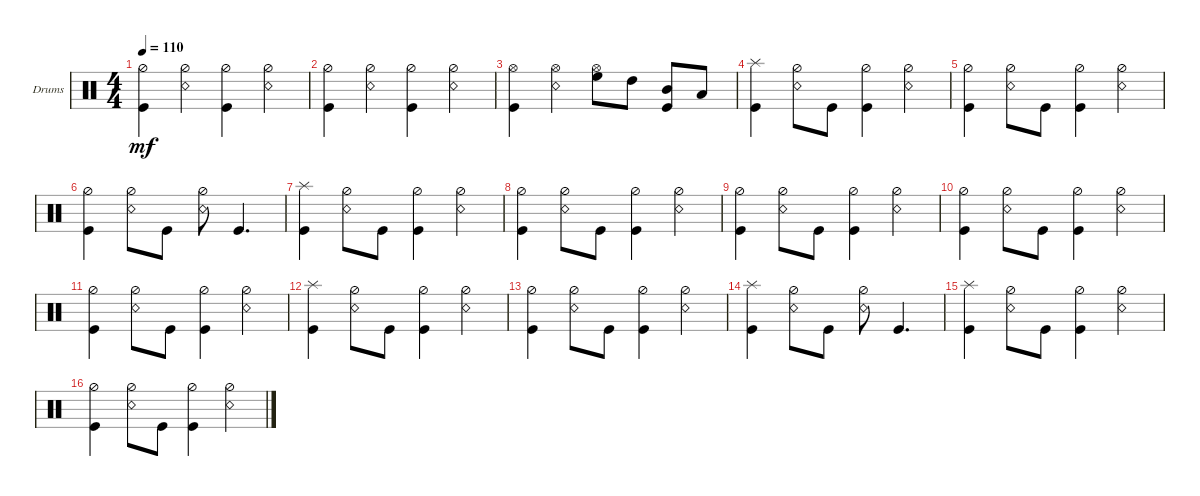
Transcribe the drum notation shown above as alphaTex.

\bracketExtendMode groupsimilarinstruments
\firstSystemTrackNameOrientation horizontal
\otherSystemsTrackNameOrientation horizontal
\track ("Drumkit" "Drums") {instrument percussion}
\staff {score}
\articulation defaults
\ts (4 4)
\tempo 110
\clef neutral
\ks c
("Kick (hit)" "Hi-Hat (half)").4{dy mf} ("Snare (rim shot)" "Hi-Hat (half)").4 ("Kick (hit)" "Hi-Hat (half)").4 ("Snare (rim shot)" "Hi-Hat (half)").4 |
("Kick (hit)" "Hi-Hat (half)").4 ("Snare (rim shot)" "Hi-Hat (half)").4 ("Kick (hit)" "Hi-Hat (half)").4 ("Snare (rim shot)" "Hi-Hat (half)").4 |
("Kick (hit)" "Hi-Hat (open)").4 ("Hi-Hat (open)" "Snare (rim shot)").4 ("High Floor Tom (hit)" "Hi-Hat (open)").8 "High Tom (hit)".8 ("Mid Tom (hit)" "Kick (hit)").8 "Low Tom (hit)".8 |
("Kick (hit)" "Splash (hit)").4 ("Snare (rim shot)" "Hi-Hat (half)").8 "Kick (hit)".8 ("Kick (hit)" "Hi-Hat (half)").4 ("Snare (rim shot)" "Hi-Hat (half)").4 |
("Kick (hit)" "Hi-Hat (half)").4 ("Snare (rim shot)" "Hi-Hat (half)").8 "Kick (hit)".8 ("Kick (hit)" "Hi-Hat (half)").4 ("Snare (rim shot)" "Hi-Hat (half)").4 |
("Kick (hit)" "Hi-Hat (half)").4 ("Snare (rim shot)" "Hi-Hat (half)").8 "Kick (hit)".8 ("Snare (rim shot)" "Hi-Hat (half)").8 "Kick (hit)".4{d} |
("Kick (hit)" "Splash (hit)").4 ("Snare (rim shot)" "Hi-Hat (half)").8 "Kick (hit)".8 ("Kick (hit)" "Hi-Hat (half)").4 ("Snare (rim shot)" "Hi-Hat (half)").4 |
("Kick (hit)" "Hi-Hat (half)").4 ("Snare (rim shot)" "Hi-Hat (half)").8 "Kick (hit)".8 ("Kick (hit)" "Hi-Hat (half)").4 ("Snare (rim shot)" "Hi-Hat (half)").4 |
("Kick (hit)" "Hi-Hat (half)").4 ("Snare (rim shot)" "Hi-Hat (half)").8 "Kick (hit)".8 ("Kick (hit)" "Hi-Hat (half)").4 ("Snare (rim shot)" "Hi-Hat (half)").4 |
("Kick (hit)" "Hi-Hat (half)").4 ("Snare (rim shot)" "Hi-Hat (half)").8 "Kick (hit)".8 ("Kick (hit)" "Hi-Hat (half)").4 ("Snare (rim shot)" "Hi-Hat (half)").4 |
("Kick (hit)" "Hi-Hat (half)").4 ("Snare (rim shot)" "Hi-Hat (half)").8 "Kick (hit)".8 ("Kick (hit)" "Hi-Hat (half)").4 ("Snare (rim shot)" "Hi-Hat (half)").4 |
("Kick (hit)" "Splash (hit)").4 ("Snare (rim shot)" "Hi-Hat (half)").8 "Kick (hit)".8 ("Kick (hit)" "Hi-Hat (half)").4 ("Snare (rim shot)" "Hi-Hat (half)").4 |
("Kick (hit)" "Hi-Hat (half)").4 ("Snare (rim shot)" "Hi-Hat (half)").8 "Kick (hit)".8 ("Kick (hit)" "Hi-Hat (half)").4 ("Snare (rim shot)" "Hi-Hat (half)").4 |
("Kick (hit)" "Splash (hit)").4 ("Snare (rim shot)" "Hi-Hat (half)").8 "Kick (hit)".8 ("Snare (rim shot)" "Hi-Hat (half)").8 "Kick (hit)".4{d} |
("Kick (hit)" "Splash (hit)").4 ("Snare (rim shot)" "Hi-Hat (half)").8 "Kick (hit)".8 ("Kick (hit)" "Hi-Hat (half)").4 ("Snare (rim shot)" "Hi-Hat (half)").4 |
("Kick (hit)" "Hi-Hat (half)").4 ("Snare (rim shot)" "Hi-Hat (half)").8 "Kick (hit)".8 ("Kick (hit)" "Hi-Hat (half)").4 ("Snare (rim shot)" "Hi-Hat (half)").4
